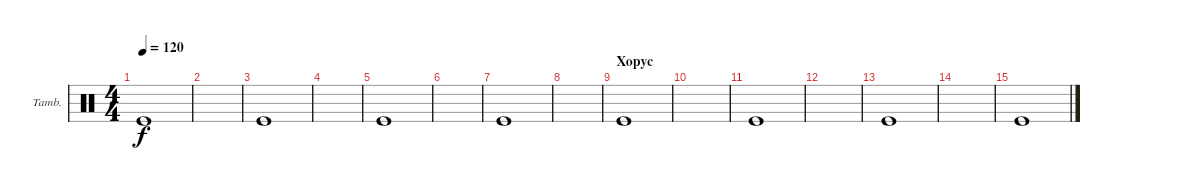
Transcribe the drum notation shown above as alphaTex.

\defaultSystemsLayout 4
\bracketExtendMode groupsimilarinstruments
\firstSystemTrackNameOrientation horizontal
\otherSystemsTrackNameOrientation horizontal
\track ("Tambourine" "Tamb.") {instrument percussion}
\staff {score}
\articulation defaults
\ts (4 4)
\tempo 120
\clef neutral
\ks c "Kick (hit)".1{dy f}
|
|
"Kick (hit)".1 |
|
"Kick (hit)".1 |
|
"Kick (hit)".1 |
|
\section ("" "Хорус")
"Kick (hit)".1 |
|
"Kick (hit)".1 |
|
"Kick (hit)".1 |
|
"Kick (hit)".1
